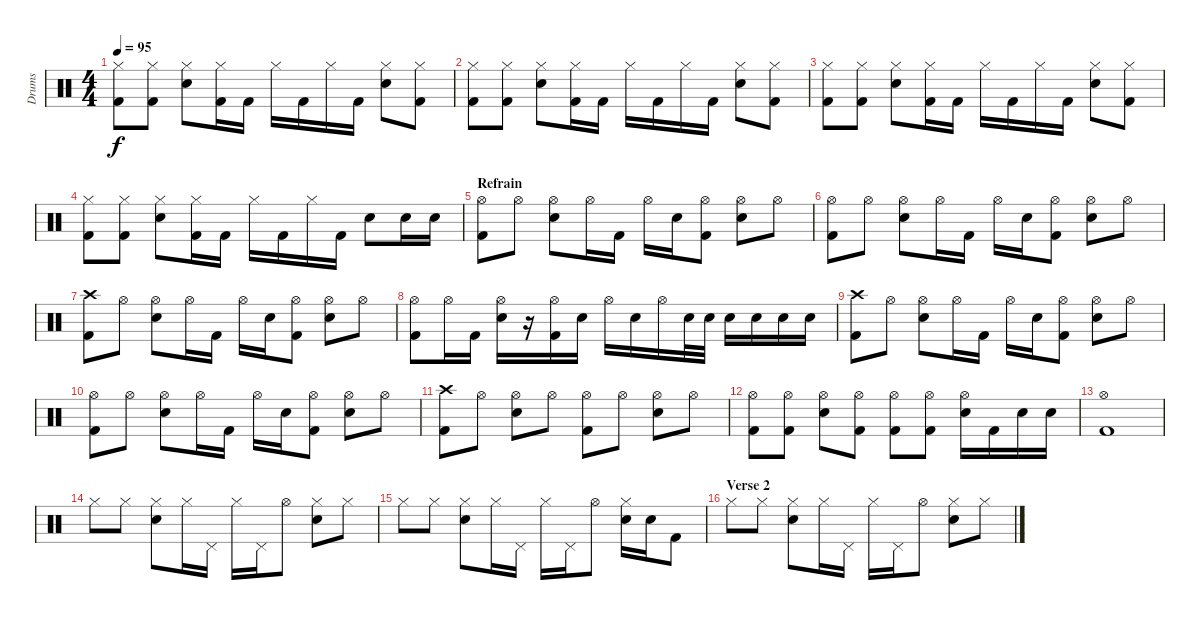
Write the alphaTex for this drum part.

\track ("Drums" "Drums") {instrument percussion}
\staff {score}
\articulation defaults
\ts (4 4)
\tempo 95
\clef neutral
\ks c
("Hi-Hat (closed)" "Kick (hit) 2").8{dy f} ("Hi-Hat (closed)" "Kick (hit) 2").8 ("Hi-Hat (closed)" "Snare (hit) 2").8 ("Hi-Hat (closed)" "Kick (hit) 2").16 "Kick (hit) 2".16 "Hi-Hat (closed)".16 "Kick (hit) 2".16 "Hi-Hat (closed)".16 "Kick (hit) 2".16 ("Hi-Hat (closed)" "Snare (hit) 2").8 ("Hi-Hat (closed)" "Kick (hit) 2").8 |
("Hi-Hat (closed)" "Kick (hit) 2").8 ("Hi-Hat (closed)" "Kick (hit) 2").8 ("Hi-Hat (closed)" "Snare (hit) 2").8 ("Hi-Hat (closed)" "Kick (hit) 2").16 "Kick (hit) 2".16 "Hi-Hat (closed)".16 "Kick (hit) 2".16 "Hi-Hat (closed)".16 "Kick (hit) 2".16 ("Hi-Hat (closed)" "Snare (hit) 2").8 ("Hi-Hat (closed)" "Kick (hit) 2").8 |
("Hi-Hat (closed)" "Kick (hit) 2").8 ("Hi-Hat (closed)" "Kick (hit) 2").8 ("Hi-Hat (closed)" "Snare (hit) 2").8 ("Hi-Hat (closed)" "Kick (hit) 2").16 "Kick (hit) 2".16 "Hi-Hat (closed)".16 "Kick (hit) 2".16 "Hi-Hat (closed)".16 "Kick (hit) 2".16 ("Hi-Hat (closed)" "Snare (hit) 2").8 ("Hi-Hat (closed)" "Kick (hit) 2").8 |
("Hi-Hat (closed)" "Kick (hit) 2").8 ("Hi-Hat (closed)" "Kick (hit) 2").8 ("Hi-Hat (closed)" "Snare (hit) 2").8 ("Hi-Hat (closed)" "Kick (hit) 2").16 "Kick (hit) 2".16 "Hi-Hat (closed)".16 "Kick (hit) 2".16 "Hi-Hat (closed)".16 "Kick (hit) 2".16 "Snare (hit) 2".8 "Snare (hit) 2".16 "Snare (hit) 2".16 |
\section ("" "Refrain")
("Hi-Hat (open)" "Kick (hit) 2").8 "Hi-Hat (open)".8 ("Hi-Hat (open)" "Snare (hit) 2").8 "Hi-Hat (open)".16 "Kick (hit) 2".16 "Hi-Hat (open)".16 "Snare (hit) 2".16 ("Hi-Hat (open)" "Kick (hit) 2").8 ("Hi-Hat (open)" "Snare (hit) 2").8 "Hi-Hat (open)".8 |
("Hi-Hat (open)" "Kick (hit) 2").8 "Hi-Hat (open)".8 ("Hi-Hat (open)" "Snare (hit) 2").8 "Hi-Hat (open)".16 "Kick (hit) 2".16 "Hi-Hat (open)".16 "Snare (hit) 2".16 ("Hi-Hat (open)" "Kick (hit) 2").8 ("Hi-Hat (open)" "Snare (hit) 2").8 "Hi-Hat (open)".8 |
("Crash high (hit)" "Kick (hit) 2").8 "Hi-Hat (open)".8 ("Hi-Hat (open)" "Snare (hit) 2").8 "Hi-Hat (open)".16 "Kick (hit) 2".16 "Hi-Hat (open)".16 "Snare (hit) 2".16 ("Hi-Hat (open)" "Kick (hit) 2").8 ("Hi-Hat (open)" "Snare (hit) 2").8 "Hi-Hat (open)".8 |
("Hi-Hat (open)" "Kick (hit) 2").8 "Hi-Hat (open)".16 "Kick (hit) 2".16 ("Hi-Hat (open)" "Snare (hit) 2").16 r.16 ("Hi-Hat (open)" "Kick (hit) 2").16 "Snare (hit) 2".16 "Hi-Hat (open)".16 "Snare (hit) 2".16 "Hi-Hat (open)".16 "Snare (hit) 2".32 "Snare (hit) 2".32 "Snare (hit) 2".16 "Snare (hit) 2".16 "Snare (hit) 2".16 "Snare (hit) 2".16 |
("Crash high (hit)" "Kick (hit) 2").8 "Hi-Hat (open)".8 ("Hi-Hat (open)" "Snare (hit) 2").8 "Hi-Hat (open)".16 "Kick (hit) 2".16 "Hi-Hat (open)".16 "Snare (hit) 2".16 ("Hi-Hat (open)" "Kick (hit) 2").8 ("Hi-Hat (open)" "Snare (hit) 2").8 "Hi-Hat (open)".8 |
("Hi-Hat (open)" "Kick (hit) 2").8 "Hi-Hat (open)".8 ("Hi-Hat (open)" "Snare (hit) 2").8 "Hi-Hat (open)".16 "Kick (hit) 2".16 "Hi-Hat (open)".16 "Snare (hit) 2".16 ("Hi-Hat (open)" "Kick (hit) 2").8 ("Hi-Hat (open)" "Snare (hit) 2").8 "Hi-Hat (open)".8 |
("Crash high (hit)" "Kick (hit) 2").8 "Hi-Hat (open)".8 ("Hi-Hat (open)" "Snare (hit) 2").8 "Hi-Hat (open)".8 ("Hi-Hat (open)" "Kick (hit) 2").8 "Hi-Hat (open)".8 ("Hi-Hat (open)" "Snare (hit) 2").8 "Hi-Hat (open)".8 |
("Hi-Hat (open)" "Kick (hit) 2").8 ("Hi-Hat (open)" "Kick (hit) 2").8 ("Hi-Hat (open)" "Snare (hit) 2").8 ("Hi-Hat (open)" "Kick (hit) 2").8 ("Hi-Hat (open)" "Kick (hit) 2").8 ("Hi-Hat (open)" "Kick (hit) 2").8 ("Hi-Hat (open)" "Snare (hit) 2").16 "Kick (hit) 2".16 "Snare (hit) 2".16 "Snare (hit) 2".16 |
("Hi-Hat (open)" "Kick (hit) 2").1 |
"Hi-Hat (closed)".8 "Hi-Hat (closed)".8 ("Hi-Hat (closed)" "Snare (hit) 2").8 "Hi-Hat (closed)".16 "Pedal Hi-Hat (hit)".16 "Hi-Hat (closed)".16 "Pedal Hi-Hat (hit)".16 "Hi-Hat (open)".8 ("Hi-Hat (closed)" "Snare (hit) 2").8 "Hi-Hat (closed)".8 |
"Hi-Hat (closed)".8 "Hi-Hat (closed)".8 ("Hi-Hat (closed)" "Snare (hit) 2").8 "Hi-Hat (closed)".16 "Pedal Hi-Hat (hit)".16 "Hi-Hat (closed)".16 "Pedal Hi-Hat (hit)".16 "Hi-Hat (open)".8 ("Hi-Hat (closed)" "Snare (hit) 2").16 "Snare (hit) 2".16 "Kick (hit) 2".8 |
\section ("" "Verse 2")
"Hi-Hat (closed)".8 "Hi-Hat (closed)".8 ("Hi-Hat (closed)" "Snare (hit) 2").8 "Hi-Hat (closed)".16 "Pedal Hi-Hat (hit)".16 "Hi-Hat (closed)".16 "Pedal Hi-Hat (hit)".16 "Hi-Hat (open)".8 ("Hi-Hat (closed)" "Snare (hit) 2").8 "Hi-Hat (closed)".8
